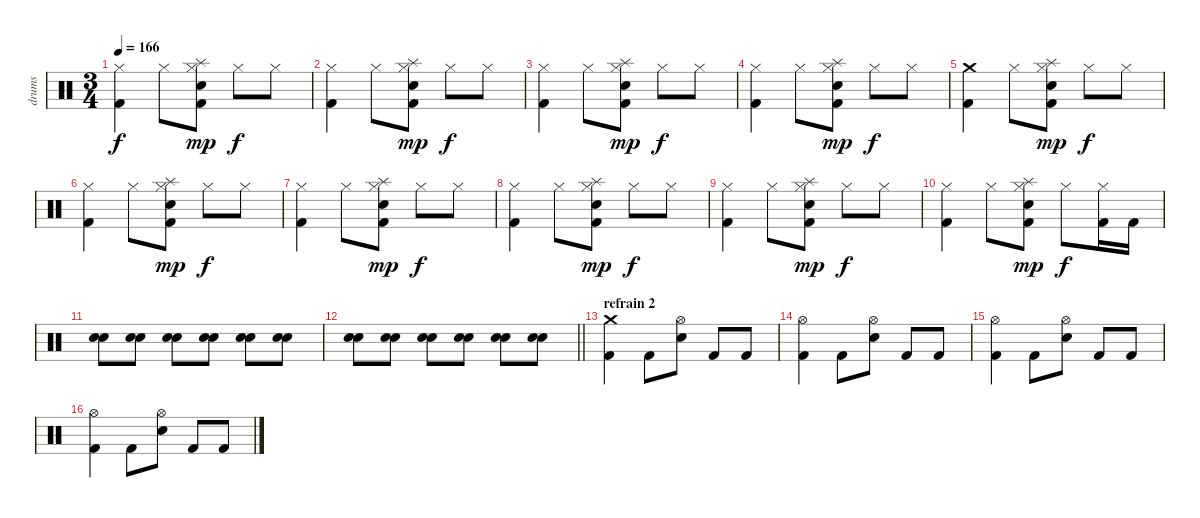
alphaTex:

\track ("drums" "drums") {instrument percussion}
\staff {score}
\articulation defaults
\ts (3 4)
\tempo 166
\clef neutral
\ks c
("Hi-Hat (closed)" "Kick (hit) 2").4{dy f} "Hi-Hat (closed)".8 ("Splash (hit)" "Hi-Hat (closed)" "Electric Snare (hit)" "Kick (hit) 2").8{dy mp} "Hi-Hat (closed)".8{dy f} "Hi-Hat (closed)".8 |
("Hi-Hat (closed)" "Kick (hit) 2").4 "Hi-Hat (closed)".8 ("Splash (hit)" "Hi-Hat (closed)" "Electric Snare (hit)" "Kick (hit) 2").8{dy mp} "Hi-Hat (closed)".8{dy f} "Hi-Hat (closed)".8 |
("Hi-Hat (closed)" "Kick (hit) 2").4 "Hi-Hat (closed)".8 ("Splash (hit)" "Hi-Hat (closed)" "Electric Snare (hit)" "Kick (hit) 2").8{dy mp} "Hi-Hat (closed)".8{dy f} "Hi-Hat (closed)".8 |
("Hi-Hat (closed)" "Kick (hit) 2").4 "Hi-Hat (closed)".8 ("Splash (hit)" "Hi-Hat (closed)" "Electric Snare (hit)" "Kick (hit) 2").8{dy mp} "Hi-Hat (closed)".8{dy f} "Hi-Hat (closed)".8 |
("Crash medium (hit)" "Kick (hit) 2").4 "Hi-Hat (closed)".8 ("Splash (hit)" "Hi-Hat (closed)" "Electric Snare (hit)" "Kick (hit) 2").8{dy mp} "Hi-Hat (closed)".8{dy f} "Hi-Hat (closed)".8 |
("Hi-Hat (closed)" "Kick (hit) 2").4 "Hi-Hat (closed)".8 ("Splash (hit)" "Hi-Hat (closed)" "Electric Snare (hit)" "Kick (hit) 2").8{dy mp} "Hi-Hat (closed)".8{dy f} "Hi-Hat (closed)".8 |
("Hi-Hat (closed)" "Kick (hit) 2").4 "Hi-Hat (closed)".8 ("Splash (hit)" "Hi-Hat (closed)" "Electric Snare (hit)" "Kick (hit) 2").8{dy mp} "Hi-Hat (closed)".8{dy f} "Hi-Hat (closed)".8 |
("Hi-Hat (closed)" "Kick (hit) 2").4 "Hi-Hat (closed)".8 ("Splash (hit)" "Hi-Hat (closed)" "Electric Snare (hit)" "Kick (hit) 2").8{dy mp} "Hi-Hat (closed)".8{dy f} "Hi-Hat (closed)".8 |
("Hi-Hat (closed)" "Kick (hit) 2").4 "Hi-Hat (closed)".8 ("Splash (hit)" "Hi-Hat (closed)" "Electric Snare (hit)" "Kick (hit) 2").8{dy mp} "Hi-Hat (closed)".8{dy f} "Hi-Hat (closed)".8 |
("Hi-Hat (closed)" "Kick (hit) 2").4 "Hi-Hat (closed)".8 ("Splash (hit)" "Hi-Hat (closed)" "Electric Snare (hit)" "Kick (hit) 2").8{dy mp} "Hi-Hat (closed)".8{dy f} ("Hi-Hat (closed)" "Kick (hit) 2").16 "Kick (hit) 2".16 |
("Snare (hit) 2" "Electric Snare (hit)").8 ("Snare (hit) 2" "Electric Snare (hit)").8 ("Snare (hit) 2" "Electric Snare (hit)").8 ("Snare (hit) 2" "Electric Snare (hit)").8 ("Snare (hit) 2" "Electric Snare (hit)").8 ("Snare (hit) 2" "Electric Snare (hit)").8 |
\barLineRight lightlight
("Snare (hit) 2" "Electric Snare (hit)").8 ("Snare (hit) 2" "Electric Snare (hit)").8 ("Snare (hit) 2" "Electric Snare (hit)").8 ("Snare (hit) 2" "Electric Snare (hit)").8 ("Snare (hit) 2" "Electric Snare (hit)").8 ("Snare (hit) 2" "Electric Snare (hit)").8 |
\section ("" "refrain 2")
("Crash medium (hit)" "Kick (hit) 2").4 "Kick (hit) 2".8 ("Hi-Hat (open)" "Electric Snare (hit)").8 "Kick (hit) 2".8 "Kick (hit) 2".8 |
("Hi-Hat (open)" "Kick (hit) 2").4 "Kick (hit) 2".8 ("Hi-Hat (open)" "Electric Snare (hit)").8 "Kick (hit) 2".8 "Kick (hit) 2".8 |
("Hi-Hat (open)" "Kick (hit) 2").4 "Kick (hit) 2".8 ("Hi-Hat (open)" "Electric Snare (hit)").8 "Kick (hit) 2".8 "Kick (hit) 2".8 |
("Hi-Hat (open)" "Kick (hit) 2").4 "Kick (hit) 2".8 ("Hi-Hat (open)" "Electric Snare (hit)").8 "Kick (hit) 2".8 "Kick (hit) 2".8
